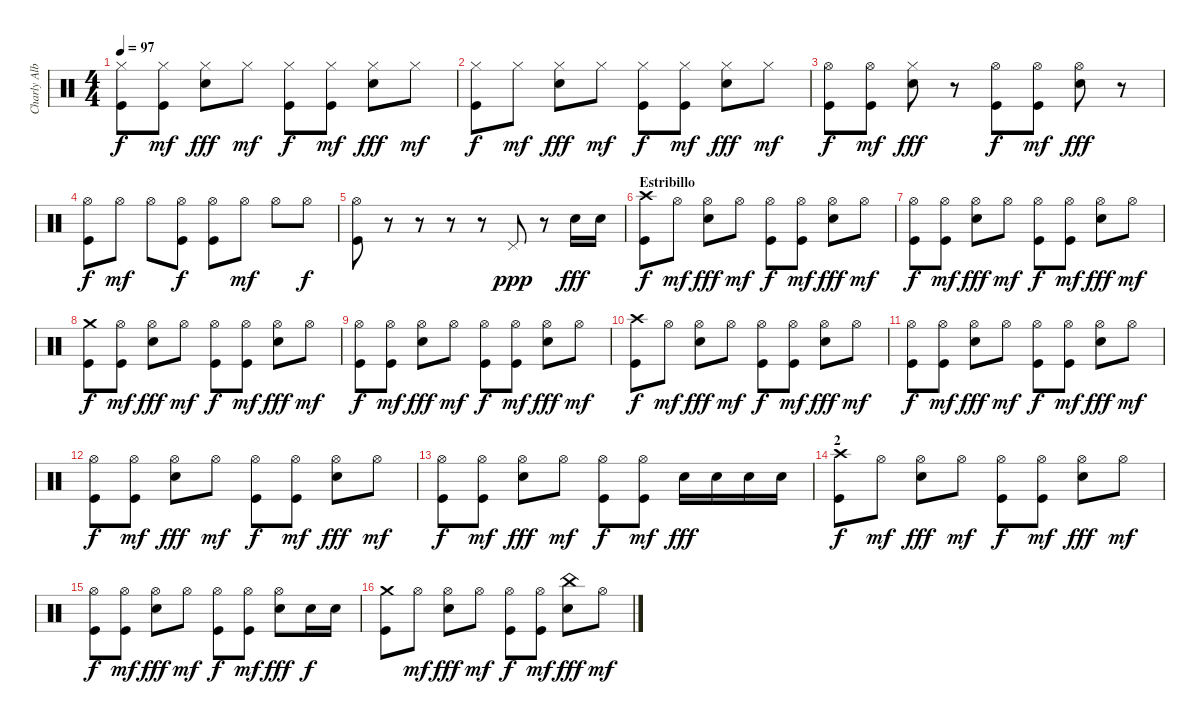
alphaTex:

\track ("Charly Alberti" "Charly Alb") {instrument percussion}
\staff {score}
\articulation defaults
\ts (4 4)
\tempo 97
\clef neutral
\ks c
("Kick (hit)" "Hi-Hat (closed)").8{dy f} ("Kick (hit)" "Hi-Hat (closed)").8{dy mf} ("Snare (hit) 2" "Hi-Hat (closed)").8{dy fff} "Hi-Hat (closed)".8{dy mf} ("Kick (hit)" "Hi-Hat (closed)").8{dy f} ("Kick (hit)" "Hi-Hat (closed)").8{dy mf} ("Snare (hit) 2" "Hi-Hat (closed)").8{dy fff} "Hi-Hat (closed)".8{dy mf} |
("Kick (hit)" "Hi-Hat (closed)").8{dy f} "Hi-Hat (closed)".8{dy mf} ("Snare (hit) 2" "Hi-Hat (closed)").8{dy fff} "Hi-Hat (closed)".8{dy mf} ("Kick (hit)" "Hi-Hat (closed)").8{dy f} ("Kick (hit)" "Hi-Hat (closed)").8{dy mf} ("Snare (hit) 2" "Hi-Hat (closed)").8{dy fff} "Hi-Hat (closed)".8{dy mf} |
("Kick (hit)" "Hi-Hat (open)").8{dy f} ("Kick (hit)" "Hi-Hat (open)").8{dy mf} ("Snare (hit) 2" "Hi-Hat (closed)").8{dy fff} r.8 ("Kick (hit)" "Hi-Hat (open)").8{dy f} ("Kick (hit)" "Hi-Hat (open)").8{dy mf} ("Snare (hit) 2" "Hi-Hat (open)").8{dy fff} r.8 |
("Kick (hit)" "Hi-Hat (open)").8{dy f} "Hi-Hat (open)".8{dy mf} "Hi-Hat (open)".8 ("Kick (hit)" "Hi-Hat (open)").8{dy f} ("Kick (hit)" "Hi-Hat (open)").8 "Hi-Hat (open)".8{dy mf} "Hi-Hat (open)".8 "Hi-Hat (open)".8{dy f} |
("Kick (hit)" "Hi-Hat (open)").8 r.8 r.8 r.8 r.8 "Pedal Hi-Hat (hit)".8{dy ppp} r.8 "Snare (hit) 2".16{dy fff} "Snare (hit) 2".16 |
\section ("" "Estribillo")
("Kick (hit)" "Crash high (hit)").8{dy f} "Hi-Hat (open)".8{dy mf} ("Snare (hit) 2" "Hi-Hat (open)").8{dy fff} "Hi-Hat (open)".8{dy mf} ("Kick (hit)" "Hi-Hat (open)").8{dy f} ("Kick (hit)" "Hi-Hat (open)").8{dy mf} ("Snare (hit) 2" "Hi-Hat (open)").8{dy fff} "Hi-Hat (open)".8{dy mf} |
("Kick (hit)" "Hi-Hat (open)").8{dy f} ("Kick (hit)" "Hi-Hat (open)").8{dy mf} ("Snare (hit) 2" "Hi-Hat (open)").8{dy fff} "Hi-Hat (open)".8{dy mf} ("Kick (hit)" "Hi-Hat (open)").8{dy f} ("Kick (hit)" "Hi-Hat (open)").8{dy mf} ("Snare (hit) 2" "Hi-Hat (open)").8{dy fff} "Hi-Hat (open)".8{dy mf} |
("Kick (hit)" "Crash medium (hit)").8{dy f} ("Kick (hit)" "Hi-Hat (open)").8{dy mf} ("Snare (hit) 2" "Hi-Hat (open)").8{dy fff} "Hi-Hat (open)".8{dy mf} ("Kick (hit)" "Hi-Hat (open)").8{dy f} ("Kick (hit)" "Hi-Hat (open)").8{dy mf} ("Snare (hit) 2" "Hi-Hat (open)").8{dy fff} "Hi-Hat (open)".8{dy mf} |
("Kick (hit)" "Hi-Hat (open)").8{dy f} ("Kick (hit)" "Hi-Hat (open)").8{dy mf} ("Snare (hit) 2" "Hi-Hat (open)").8{dy fff} "Hi-Hat (open)".8{dy mf} ("Kick (hit)" "Hi-Hat (open)").8{dy f} ("Kick (hit)" "Hi-Hat (open)").8{dy mf} ("Snare (hit) 2" "Hi-Hat (open)").8{dy fff} "Hi-Hat (open)".8{dy mf} |
("Kick (hit)" "Crash high (hit)").8{dy f} "Hi-Hat (open)".8{dy mf} ("Snare (hit) 2" "Hi-Hat (open)").8{dy fff} "Hi-Hat (open)".8{dy mf} ("Kick (hit)" "Hi-Hat (open)").8{dy f} ("Kick (hit)" "Hi-Hat (open)").8{dy mf} ("Snare (hit) 2" "Hi-Hat (open)").8{dy fff} "Hi-Hat (open)".8{dy mf} |
("Kick (hit)" "Hi-Hat (open)").8{dy f} ("Kick (hit)" "Hi-Hat (open)").8{dy mf} ("Snare (hit) 2" "Hi-Hat (open)").8{dy fff} "Hi-Hat (open)".8{dy mf} ("Kick (hit)" "Hi-Hat (open)").8{dy f} ("Kick (hit)" "Hi-Hat (open)").8{dy mf} ("Snare (hit) 2" "Hi-Hat (open)").8{dy fff} "Hi-Hat (open)".8{dy mf} |
("Kick (hit)" "Hi-Hat (open)").8{dy f} ("Kick (hit)" "Hi-Hat (open)").8{dy mf} ("Snare (hit) 2" "Hi-Hat (open)").8{dy fff} "Hi-Hat (open)".8{dy mf} ("Kick (hit)" "Hi-Hat (open)").8{dy f} ("Kick (hit)" "Hi-Hat (open)").8{dy mf} ("Snare (hit) 2" "Hi-Hat (open)").8{dy fff} "Hi-Hat (open)".8{dy mf} |
("Kick (hit)" "Hi-Hat (open)").8{dy f} ("Kick (hit)" "Hi-Hat (open)").8{dy mf} ("Snare (hit) 2" "Hi-Hat (open)").8{dy fff} "Hi-Hat (open)".8{dy mf} ("Kick (hit)" "Hi-Hat (open)").8{dy f} ("Kick (hit)" "Hi-Hat (open)").8{dy mf} "Snare (hit) 2".16{dy fff} "Snare (hit) 2".16 "Snare (hit) 2".16 "Snare (hit) 2".16 |
\section ("" "2")
("Kick (hit)" "Crash high (hit)").8{dy f} "Hi-Hat (open)".8{dy mf} ("Snare (hit) 2" "Hi-Hat (open)").8{dy fff} "Hi-Hat (open)".8{dy mf} ("Kick (hit)" "Hi-Hat (open)").8{dy f} ("Kick (hit)" "Hi-Hat (open)").8{dy mf} ("Snare (hit) 2" "Hi-Hat (open)").8{dy fff} "Hi-Hat (open)".8{dy mf} |
("Kick (hit)" "Hi-Hat (open)").8{dy f} ("Kick (hit)" "Hi-Hat (open)").8{dy mf} ("Snare (hit) 2" "Hi-Hat (open)").8{dy fff} "Hi-Hat (open)".8{dy mf} ("Kick (hit)" "Hi-Hat (open)").8{dy f} ("Kick (hit)" "Hi-Hat (open)").8{dy mf} ("Snare (hit) 2" "Hi-Hat (open)").8{dy fff} "Snare (hit) 2".16{dy f} "Snare (hit) 2".16 |
("Kick (hit)" "Crash medium (hit)").8 "Hi-Hat (open)".8{dy mf} ("Snare (hit) 2" "Hi-Hat (open)").8{dy fff} "Hi-Hat (open)".8{dy mf} ("Kick (hit)" "Hi-Hat (open)").8{dy f} ("Kick (hit)" "Hi-Hat (open)").8{dy mf} ("Snare (hit) 2" "China (hit)").8{dy fff} "Hi-Hat (open)".8{dy mf}
